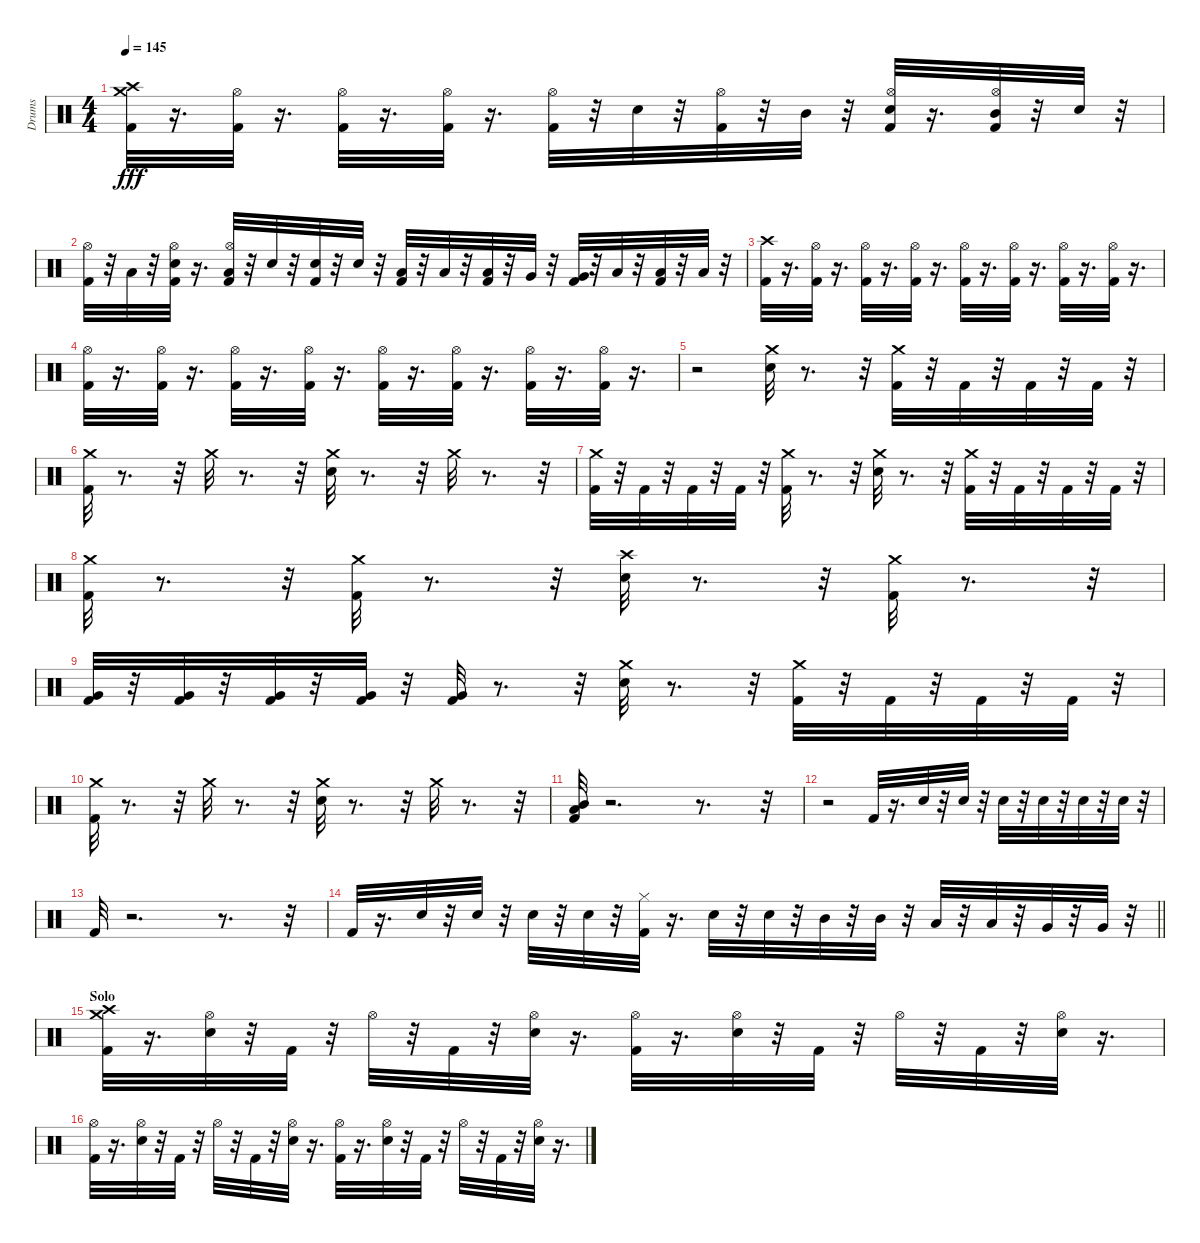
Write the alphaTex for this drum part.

\track ("Drums" "Drums") {instrument percussion}
\staff {score}
\articulation defaults
\ts (4 4)
\tempo 145
\clef neutral
\ks c
("Crash medium (hit)" "Crash high (hit)" "Kick (hit) 2").32{dy fff} r.16{d} ("Hi-Hat (open)" "Kick (hit) 2").32 r.16{d} ("Hi-Hat (open)" "Kick (hit) 2").32 r.16{d} ("Hi-Hat (open)" "Kick (hit) 2").32 r.16{d} ("Hi-Hat (open)" "Kick (hit) 2").32 r.32 "Snare (hit) 2".32 r.32 ("Hi-Hat (open)" "Kick (hit) 2").32 r.32 "Mid Tom (hit)".32 r.32 ("Hi-Hat (open)" "Snare (hit) 2" "Kick (hit) 2").32 r.16{d} ("Hi-Hat (open)" "Mid Tom (hit)" "Kick (hit) 2").32 r.32 "Snare (hit) 2".32 r.32 |
("Hi-Hat (open)" "Kick (hit) 2").32 r.32 "Low Tom (hit)".32 r.32 ("Hi-Hat (open)" "Snare (hit) 2" "Kick (hit) 2").32 r.16{d} ("Hi-Hat (open)" "Low Tom (hit)" "Kick (hit) 2").32 r.32 "Snare (hit) 2".32 r.32 ("Snare (hit) 2" "Kick (hit) 2").32 r.32 "Snare (hit) 2".32 r.32 ("Low Tom (hit)" "Kick (hit) 2").32 r.32 "Low Tom (hit)".32 r.32 ("Low Tom (hit)" "Kick (hit) 2").32 r.32 "Very Low Tom (hit)".32 r.32 ("Very Low Tom (hit)" "Kick (hit) 2").32 r.32 "Low Floor Tom (hit)".32 r.32 ("Low Floor Tom (hit)" "Kick (hit) 2").32 r.32 "Low Floor Tom (hit)".32 r.32 |
("Crash high (hit)" "Kick (hit) 2").32 r.16{d} ("Hi-Hat (open)" "Kick (hit) 2").32 r.16{d} ("Hi-Hat (open)" "Kick (hit) 2").32 r.16{d} ("Hi-Hat (open)" "Kick (hit) 2").32 r.16{d} ("Hi-Hat (open)" "Kick (hit) 2").32 r.16{d} ("Hi-Hat (open)" "Kick (hit) 2").32 r.16{d} ("Hi-Hat (open)" "Kick (hit) 2").32 r.16{d} ("Hi-Hat (open)" "Kick (hit) 2").32 r.16{d} |
("Hi-Hat (open)" "Kick (hit) 2").32 r.16{d} ("Hi-Hat (open)" "Kick (hit) 2").32 r.16{d} ("Hi-Hat (open)" "Kick (hit) 2").32 r.16{d} ("Hi-Hat (open)" "Kick (hit) 2").32 r.16{d} ("Hi-Hat (open)" "Kick (hit) 2").32 r.16{d} ("Hi-Hat (open)" "Kick (hit) 2").32 r.16{d} ("Hi-Hat (open)" "Kick (hit) 2").32 r.16{d} ("Hi-Hat (open)" "Kick (hit) 2").32 r.16{d} |
r.2 ("Crash medium (hit)" "Snare (hit) 2").32 r.8{d} r.32 ("Crash medium (hit)" "Kick (hit) 2").32 r.32 "Kick (hit) 2".32 r.32 "Kick (hit) 2".32 r.32 "Kick (hit) 2".32 r.32 |
("Kick (hit) 2" "Crash medium (hit)").32 r.8{d} r.32 "Crash medium (hit)".32 r.8{d} r.32 ("Crash medium (hit)" "Snare (hit) 2").32 r.8{d} r.32 "Crash medium (hit)".32 r.8{d} r.32 |
("Crash medium (hit)" "Kick (hit) 2").32 r.32 "Kick (hit) 2".32 r.32 "Kick (hit) 2".32 r.32 "Kick (hit) 2".32 r.32 ("Crash medium (hit)" "Kick (hit) 2").32 r.8{d} r.32 ("Crash medium (hit)" "Snare (hit) 2").32 r.8{d} r.32 ("Crash medium (hit)" "Kick (hit) 2").32 r.32 "Kick (hit) 2".32 r.32 "Kick (hit) 2".32 r.32 "Kick (hit) 2".32 r.32 |
("Kick (hit) 2" "Crash medium (hit)").32 r.8{d} r.32 ("Crash medium (hit)" "Kick (hit) 2").32 r.8{d} r.32 ("Crash high (hit)" "Snare (hit) 2").32 r.8{d} r.32 ("Crash medium (hit)" "Kick (hit) 2").32 r.8{d} r.32 |
("Very Low Tom (hit)" "Kick (hit) 2").32 r.32 ("Very Low Tom (hit)" "Kick (hit) 2").32 r.32 ("Very Low Tom (hit)" "Kick (hit) 2").32 r.32 ("Very Low Tom (hit)" "Kick (hit) 2").32 r.32 ("Very Low Tom (hit)" "Kick (hit) 2").32 r.8{d} r.32 ("Crash medium (hit)" "Snare (hit) 2").32 r.8{d} r.32 ("Crash medium (hit)" "Kick (hit) 2").32 r.32 "Kick (hit) 2".32 r.32 "Kick (hit) 2".32 r.32 "Kick (hit) 2".32 r.32 |
("Crash medium (hit)" "Kick (hit) 2").32 r.8{d} r.32 "Crash medium (hit)".32 r.8{d} r.32 ("Snare (hit) 2" "Crash medium (hit)").32 r.8{d} r.32 "Crash medium (hit)".32 r.8{d} r.32 |
("Mid Tom (hit)" "Low Floor Tom (hit)" "Kick (hit) 2").32 r.2{d} r.8{d} r.32 |
r.2 "Kick (hit) 2".32 r.16{d} "Snare (hit) 2".32 r.32 "Snare (hit) 2".32 r.32 "Snare (hit) 2".32 r.32 "Snare (hit) 2".32 r.32 "Snare (hit) 2".32 r.32 "Snare (hit) 2".32 r.32 |
"Kick (hit) 2".32 r.2{d} r.8{d} r.32 |
\barLineRight lightlight "Kick (hit) 2".32
r.16{d} "Snare (hit) 2".32 r.32 "Snare (hit) 2".32 r.32 "Snare (hit) 2".32 r.32 "Snare (hit) 2".32 r.32 ("Hi-Hat (closed)" "Kick (hit) 2").32 r.16{d} "Snare (hit) 2".32 r.32 "Snare (hit) 2".32 r.32 "Mid Tom (hit)".32 r.32 "Mid Tom (hit)".32 r.32 "Low Tom (hit)".32 r.32 "Low Tom (hit)".32 r.32 "Very Low Tom (hit)".32 r.32 "Very Low Tom (hit)".32 r.32 |
\section ("" "Solo")
("Crash medium (hit)" "Crash high (hit)" "Kick (hit) 2").32 r.16{d} ("Hi-Hat (open)" "Snare (hit) 2").32 r.32 "Kick (hit) 2".32 r.32 "Hi-Hat (open)".32 r.32 "Kick (hit) 2".32 r.32 ("Hi-Hat (open)" "Snare (hit) 2").32 r.16{d} ("Hi-Hat (open)" "Kick (hit) 2").32 r.16{d} ("Hi-Hat (open)" "Snare (hit) 2").32 r.32 "Kick (hit) 2".32 r.32 "Hi-Hat (open)".32 r.32 "Kick (hit) 2".32 r.32 ("Hi-Hat (open)" "Snare (hit) 2").32 r.16{d} |
("Hi-Hat (open)" "Kick (hit) 2").32 r.16{d} ("Hi-Hat (open)" "Snare (hit) 2").32 r.32 "Kick (hit) 2".32 r.32 "Hi-Hat (open)".32 r.32 "Kick (hit) 2".32 r.32 ("Hi-Hat (open)" "Snare (hit) 2").32 r.16{d} ("Hi-Hat (open)" "Kick (hit) 2").32 r.16{d} ("Hi-Hat (open)" "Snare (hit) 2").32 r.32 "Kick (hit) 2".32 r.32 "Hi-Hat (open)".32 r.32 "Kick (hit) 2".32 r.32 ("Hi-Hat (open)" "Snare (hit) 2").32 r.16{d}
